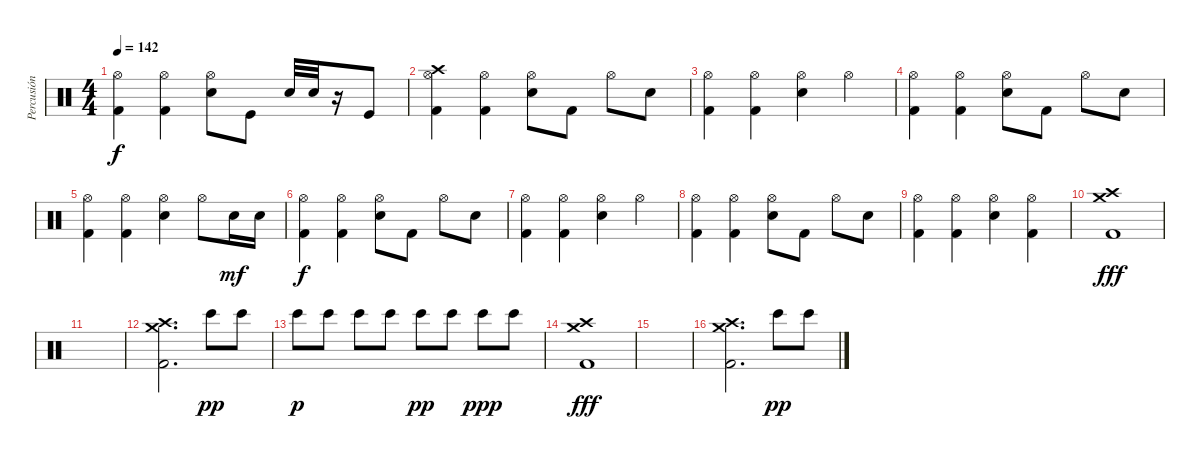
\track ("Percusión" "Percusión") {instrument percussion}
\staff {score}
\articulation defaults
\ts (4 4)
\tempo 142
\clef neutral
\ks c
("Hi-Hat (open)" "Kick (hit) 2").4{dy f} ("Hi-Hat (open)" "Kick (hit) 2").4 ("Hi-Hat (open)" "Snare (hit) 2").8 "Kick (hit)".8 "Snare (hit) 2".32 "Snare (hit) 2".32 r.16 "Kick (hit)".8 |
("Crash high (hit)" "Hi-Hat (open)" "Kick (hit) 2").4 ("Hi-Hat (open)" "Kick (hit) 2").4 ("Hi-Hat (open)" "Snare (hit) 2").8 "Kick (hit) 2".8 "Hi-Hat (open)".8 "Snare (hit) 2".8 |
("Hi-Hat (open)" "Kick (hit) 2").4 ("Hi-Hat (open)" "Kick (hit) 2").4 ("Hi-Hat (open)" "Snare (hit) 2").4 "Hi-Hat (open)".4 |
("Hi-Hat (open)" "Kick (hit) 2").4 ("Hi-Hat (open)" "Kick (hit) 2").4 ("Hi-Hat (open)" "Snare (hit) 2").8 "Kick (hit) 2".8 "Hi-Hat (open)".8 "Snare (hit) 2".8 |
("Hi-Hat (open)" "Kick (hit) 2").4 ("Hi-Hat (open)" "Kick (hit) 2").4 ("Hi-Hat (open)" "Snare (hit) 2").4 "Hi-Hat (open)".8 "Snare (hit) 2".16{dy mf} "Snare (hit) 2".16 |
("Hi-Hat (open)" "Kick (hit) 2").4{dy f} ("Hi-Hat (open)" "Kick (hit) 2").4 ("Hi-Hat (open)" "Snare (hit) 2").8 "Kick (hit) 2".8 "Hi-Hat (open)".8 "Snare (hit) 2".8 |
("Hi-Hat (open)" "Kick (hit) 2").4 ("Hi-Hat (open)" "Kick (hit) 2").4 ("Hi-Hat (open)" "Snare (hit) 2").4 "Hi-Hat (open)".4 |
("Hi-Hat (open)" "Kick (hit) 2").4 ("Hi-Hat (open)" "Kick (hit) 2").4 ("Hi-Hat (open)" "Snare (hit) 2").8 "Kick (hit) 2".8 "Hi-Hat (open)".8 "Snare (hit) 2".8 |
("Hi-Hat (open)" "Kick (hit) 2").4 ("Hi-Hat (open)" "Kick (hit) 2").4 ("Hi-Hat (open)" "Snare (hit) 2").4 ("Hi-Hat (open)" "Kick (hit) 2").4 |
("Crash medium (hit)" "Crash high (hit)" "Kick (hit) 2").1{dy fff} |
|
("Crash medium (hit)" "Crash high (hit)" "Kick (hit) 2").2{d} "Bongo High (hit)".8{dy pp balance 0} "Bongo High (hit)".8{balance 16} |
"Bongo High (hit)".8{dy p balance 0} "Bongo High (hit)".8{balance 16} "Bongo High (hit)".8{balance 0} "Bongo High (hit)".8{balance 16} "Bongo High (hit)".8{dy pp balance 0} "Bongo High (hit)".8{balance 16} "Bongo High (hit)".8{dy ppp balance 0} "Bongo High (hit)".8{balance 16} |
("Crash medium (hit)" "Crash high (hit)" "Kick (hit) 2").1{dy fff balance 8} |
|
("Crash medium (hit)" "Crash high (hit)" "Kick (hit) 2").2{d} "Bongo High (hit)".8{dy pp balance 0} "Bongo High (hit)".8{balance 16}
